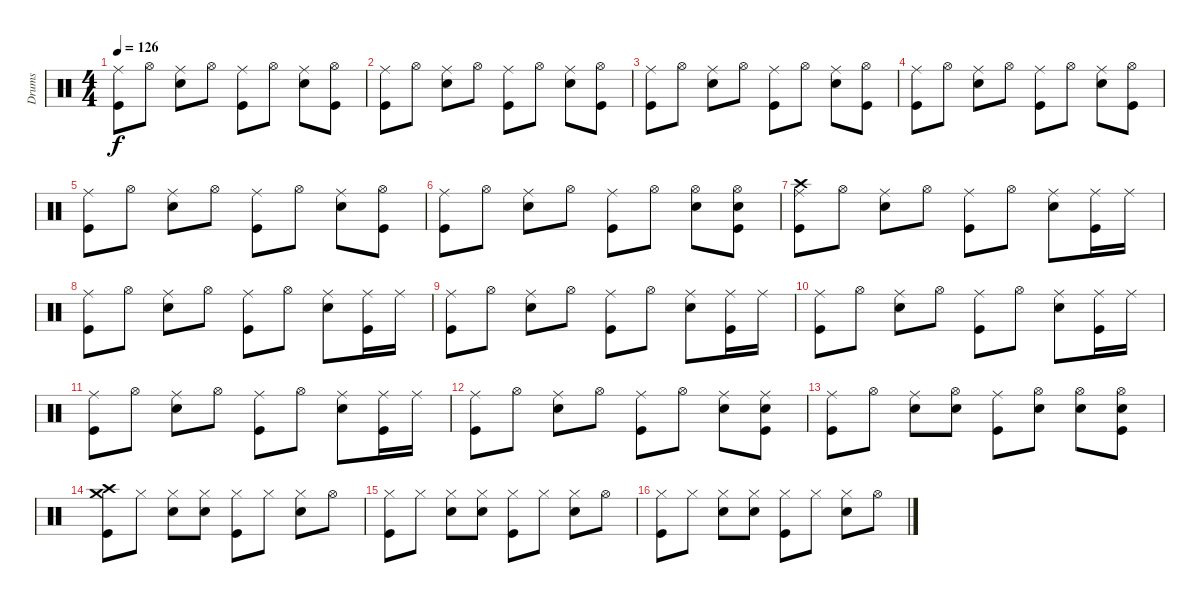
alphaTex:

\track ("Drums" "Drums") {instrument percussion}
\staff {score}
\articulation defaults
\ts (4 4)
\tempo 126
\clef neutral
\ks c
("Ride (middle)" "Kick (hit)").8{dy f} "Hi-Hat (open)".8 ("Ride (middle)" "Electric Snare (hit)").8 "Hi-Hat (open)".8 ("Ride (middle)" "Kick (hit)").8 "Hi-Hat (open)".8 ("Ride (middle)" "Electric Snare (hit)").8 ("Hi-Hat (open)" "Kick (hit)").8 |
("Ride (middle)" "Kick (hit)").8 "Hi-Hat (open)".8 ("Ride (middle)" "Electric Snare (hit)").8 "Hi-Hat (open)".8 ("Ride (middle)" "Kick (hit)").8 "Hi-Hat (open)".8 ("Ride (middle)" "Electric Snare (hit)").8 ("Hi-Hat (open)" "Kick (hit)").8 |
("Ride (middle)" "Kick (hit)").8 "Hi-Hat (open)".8 ("Ride (middle)" "Electric Snare (hit)").8 "Hi-Hat (open)".8 ("Ride (middle)" "Kick (hit)").8 "Hi-Hat (open)".8 ("Ride (middle)" "Electric Snare (hit)").8 ("Hi-Hat (open)" "Kick (hit)").8 |
("Ride (middle)" "Kick (hit)").8 "Hi-Hat (open)".8 ("Ride (middle)" "Electric Snare (hit)").8 "Hi-Hat (open)".8 ("Ride (middle)" "Kick (hit)").8 "Hi-Hat (open)".8 ("Ride (middle)" "Electric Snare (hit)").8 ("Hi-Hat (open)" "Kick (hit)").8 |
("Ride (middle)" "Kick (hit)").8 "Hi-Hat (open)".8 ("Ride (middle)" "Electric Snare (hit)").8 "Hi-Hat (open)".8 ("Ride (middle)" "Kick (hit)").8 "Hi-Hat (open)".8 ("Ride (middle)" "Electric Snare (hit)").8 ("Hi-Hat (open)" "Kick (hit)").8 |
("Ride (middle)" "Kick (hit)").8 "Hi-Hat (open)".8 ("Ride (middle)" "Electric Snare (hit)").8 "Hi-Hat (open)".8 ("Ride (middle)" "Kick (hit)").8 "Hi-Hat (open)".8 ("Hi-Hat (open)" "Electric Snare (hit)").8 ("Hi-Hat (open)" "Electric Snare (hit)" "Kick (hit)").8 |
("Ride (middle)" "Crash high (hit)" "Kick (hit)").8 "Hi-Hat (open)".8 ("Ride (middle)" "Electric Snare (hit)").8 "Hi-Hat (open)".8 ("Ride (middle)" "Kick (hit)").8 "Hi-Hat (open)".8 ("Ride (middle)" "Electric Snare (hit)").8 ("Ride (middle)" "Kick (hit)").16 "Ride (middle)".16 |
("Ride (middle)" "Kick (hit)").8 "Hi-Hat (open)".8 ("Ride (middle)" "Electric Snare (hit)").8 "Hi-Hat (open)".8 ("Ride (middle)" "Kick (hit)").8 "Hi-Hat (open)".8 ("Ride (middle)" "Electric Snare (hit)").8 ("Ride (middle)" "Kick (hit)").16 "Ride (middle)".16 |
("Ride (middle)" "Kick (hit)").8 "Hi-Hat (open)".8 ("Ride (middle)" "Electric Snare (hit)").8 "Hi-Hat (open)".8 ("Ride (middle)" "Kick (hit)").8 "Hi-Hat (open)".8 ("Ride (middle)" "Electric Snare (hit)").8 ("Ride (middle)" "Kick (hit)").16 "Ride (middle)".16 |
("Ride (middle)" "Kick (hit)").8 "Hi-Hat (open)".8 ("Ride (middle)" "Electric Snare (hit)").8 "Hi-Hat (open)".8 ("Ride (middle)" "Kick (hit)").8 "Hi-Hat (open)".8 ("Ride (middle)" "Electric Snare (hit)").8 ("Ride (middle)" "Kick (hit)").16 "Ride (middle)".16 |
("Ride (middle)" "Kick (hit)").8 "Hi-Hat (open)".8 ("Ride (middle)" "Electric Snare (hit)").8 "Hi-Hat (open)".8 ("Ride (middle)" "Kick (hit)").8 "Hi-Hat (open)".8 ("Ride (middle)" "Electric Snare (hit)").8 ("Ride (middle)" "Kick (hit)").16 "Ride (middle)".16 |
("Ride (middle)" "Kick (hit)").8 "Hi-Hat (open)".8 ("Ride (middle)" "Electric Snare (hit)").8 "Hi-Hat (open)".8 ("Ride (middle)" "Kick (hit)").8 "Hi-Hat (open)".8 ("Ride (middle)" "Electric Snare (hit)").8 ("Ride (middle)" "Electric Snare (hit)" "Kick (hit)").8 |
("Ride (middle)" "Kick (hit)").8 "Hi-Hat (open)".8 ("Ride (middle)" "Electric Snare (hit)").8 ("Hi-Hat (open)" "Electric Snare (hit)").8 ("Ride (middle)" "Kick (hit)").8 ("Hi-Hat (open)" "Electric Snare (hit)").8 ("Hi-Hat (open)" "Electric Snare (hit)").8 ("Hi-Hat (open)" "Electric Snare (hit)" "Kick (hit)").8 |
("Crash high (hit)" "Crash medium (hit)" "Kick (hit)").8 "Hi-Hat (closed)".8 ("Hi-Hat (closed)" "Electric Snare (hit)").8 ("Hi-Hat (closed)" "Electric Snare (hit)").8 ("Hi-Hat (closed)" "Kick (hit)").8 "Hi-Hat (closed)".8 ("Hi-Hat (closed)" "Electric Snare (hit)").8 "Hi-Hat (open)".8 |
("Hi-Hat (closed)" "Kick (hit)").8 "Hi-Hat (closed)".8 ("Hi-Hat (closed)" "Electric Snare (hit)").8 ("Hi-Hat (closed)" "Electric Snare (hit)").8 ("Hi-Hat (closed)" "Kick (hit)").8 "Hi-Hat (closed)".8 ("Hi-Hat (closed)" "Electric Snare (hit)").8 "Hi-Hat (open)".8 |
("Hi-Hat (closed)" "Kick (hit)").8 "Hi-Hat (closed)".8 ("Hi-Hat (closed)" "Electric Snare (hit)").8 ("Hi-Hat (closed)" "Electric Snare (hit)").8 ("Hi-Hat (closed)" "Kick (hit)").8 "Hi-Hat (closed)".8 ("Hi-Hat (closed)" "Electric Snare (hit)").8 "Hi-Hat (open)".8
